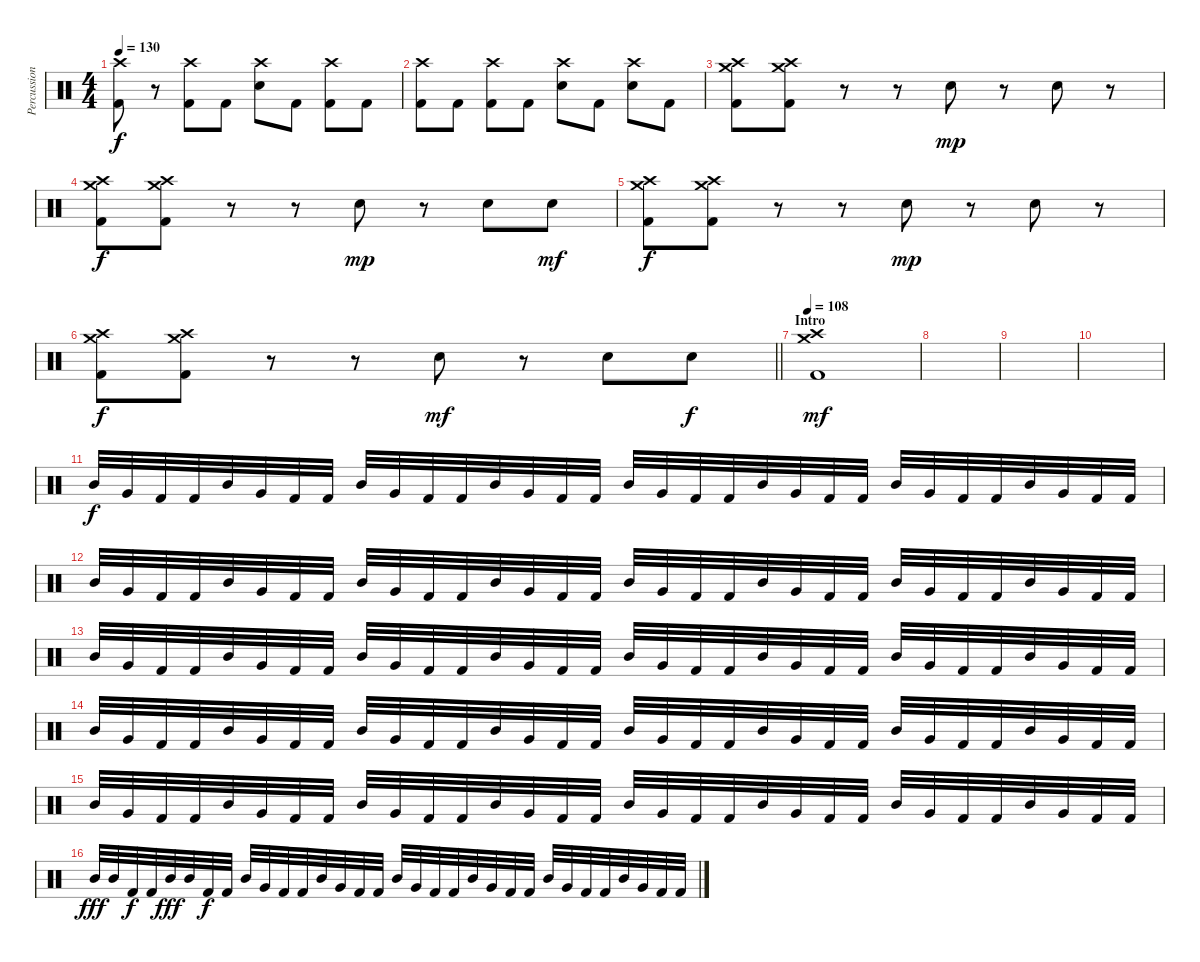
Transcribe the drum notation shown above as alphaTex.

\track ("Percussions" "Percussion") {instrument percussion}
\staff {score}
\articulation defaults
\ts (4 4)
\tempo 130
\clef neutral
\ks c
("Kick (hit) 2" "Crash high (hit)").8{dy f} r.8 ("Kick (hit) 2" "Crash high (hit)").8 "Kick (hit) 2".8 ("Electric Snare (hit)" "Crash high (hit)").8 "Kick (hit) 2".8 ("Kick (hit) 2" "Crash high (hit)").8 "Kick (hit) 2".8 |
("Kick (hit) 2" "Crash high (hit)").8 "Kick (hit) 2".8 ("Kick (hit) 2" "Crash high (hit)").8 "Kick (hit) 2".8 ("Electric Snare (hit)" "Crash high (hit)").8 "Kick (hit) 2".8 ("Electric Snare (hit)" "Crash high (hit)").8 "Kick (hit) 2".8 |
("Kick (hit) 2" "Crash medium (hit)" "Crash high (hit)").8 ("Kick (hit) 2" "Crash medium (hit)" "Crash high (hit)").8 r.8 r.8 "Snare (hit) 2".8{dy mp} r.8 "Snare (hit) 2".8 r.8 |
("Kick (hit) 2" "Crash medium (hit)" "Crash high (hit)").8{dy f} ("Kick (hit) 2" "Crash medium (hit)" "Crash high (hit)").8 r.8 r.8 "Snare (hit) 2".8{dy mp} r.8 "Snare (hit) 2".8 "Snare (hit) 2".8{dy mf} |
("Kick (hit) 2" "Crash medium (hit)" "Crash high (hit)").8{dy f} ("Kick (hit) 2" "Crash medium (hit)" "Crash high (hit)").8 r.8 r.8 "Snare (hit) 2".8{dy mp} r.8 "Snare (hit) 2".8 r.8 |
\barLineRight lightlight
("Kick (hit) 2" "Crash medium (hit)" "Crash high (hit)").8{dy f} ("Kick (hit) 2" "Crash medium (hit)" "Crash high (hit)").8 r.8 r.8 "Snare (hit) 2".8{dy mf} r.8 "Snare (hit) 2".8 "Snare (hit) 2".8{dy f} |
\section ("" "Intro")
\tempo 108
("Kick (hit) 2" "Crash medium (hit)" "Crash high (hit)").1{dy mf} |
|
|
|
"Mid Tom (hit)".32{dy f} "Very Low Tom (hit)".32 "Kick (hit) 2".32 "Kick (hit) 2".32 "Mid Tom (hit)".32 "Very Low Tom (hit)".32 "Kick (hit) 2".32 "Kick (hit) 2".32 "Mid Tom (hit)".32 "Very Low Tom (hit)".32 "Kick (hit) 2".32 "Kick (hit) 2".32 "Mid Tom (hit)".32 "Very Low Tom (hit)".32 "Kick (hit) 2".32 "Kick (hit) 2".32 "Mid Tom (hit)".32 "Very Low Tom (hit)".32 "Kick (hit) 2".32 "Kick (hit) 2".32 "Mid Tom (hit)".32 "Very Low Tom (hit)".32 "Kick (hit) 2".32 "Kick (hit) 2".32 "Mid Tom (hit)".32 "Very Low Tom (hit)".32 "Kick (hit) 2".32 "Kick (hit) 2".32 "Mid Tom (hit)".32 "Very Low Tom (hit)".32 "Kick (hit) 2".32 "Kick (hit) 2".32 |
"Mid Tom (hit)".32 "Very Low Tom (hit)".32 "Kick (hit) 2".32 "Kick (hit) 2".32 "Mid Tom (hit)".32 "Very Low Tom (hit)".32 "Kick (hit) 2".32 "Kick (hit) 2".32 "Mid Tom (hit)".32 "Very Low Tom (hit)".32 "Kick (hit) 2".32 "Kick (hit) 2".32 "Mid Tom (hit)".32 "Very Low Tom (hit)".32 "Kick (hit) 2".32 "Kick (hit) 2".32 "Mid Tom (hit)".32 "Very Low Tom (hit)".32 "Kick (hit) 2".32 "Kick (hit) 2".32 "Mid Tom (hit)".32 "Very Low Tom (hit)".32 "Kick (hit) 2".32 "Kick (hit) 2".32 "Mid Tom (hit)".32 "Very Low Tom (hit)".32 "Kick (hit) 2".32 "Kick (hit) 2".32 "Mid Tom (hit)".32 "Very Low Tom (hit)".32 "Kick (hit) 2".32 "Kick (hit) 2".32 |
"Mid Tom (hit)".32 "Very Low Tom (hit)".32 "Kick (hit) 2".32 "Kick (hit) 2".32 "Mid Tom (hit)".32 "Very Low Tom (hit)".32 "Kick (hit) 2".32 "Kick (hit) 2".32 "Mid Tom (hit)".32 "Very Low Tom (hit)".32 "Kick (hit) 2".32 "Kick (hit) 2".32 "Mid Tom (hit)".32 "Very Low Tom (hit)".32 "Kick (hit) 2".32 "Kick (hit) 2".32 "Mid Tom (hit)".32 "Very Low Tom (hit)".32 "Kick (hit) 2".32 "Kick (hit) 2".32 "Mid Tom (hit)".32 "Very Low Tom (hit)".32 "Kick (hit) 2".32 "Kick (hit) 2".32 "Mid Tom (hit)".32 "Very Low Tom (hit)".32 "Kick (hit) 2".32 "Kick (hit) 2".32 "Mid Tom (hit)".32 "Very Low Tom (hit)".32 "Kick (hit) 2".32 "Kick (hit) 2".32 |
"Mid Tom (hit)".32 "Very Low Tom (hit)".32 "Kick (hit) 2".32 "Kick (hit) 2".32 "Mid Tom (hit)".32 "Very Low Tom (hit)".32 "Kick (hit) 2".32 "Kick (hit) 2".32 "Mid Tom (hit)".32 "Very Low Tom (hit)".32 "Kick (hit) 2".32 "Kick (hit) 2".32 "Mid Tom (hit)".32 "Very Low Tom (hit)".32 "Kick (hit) 2".32 "Kick (hit) 2".32 "Mid Tom (hit)".32 "Very Low Tom (hit)".32 "Kick (hit) 2".32 "Kick (hit) 2".32 "Mid Tom (hit)".32 "Very Low Tom (hit)".32 "Kick (hit) 2".32 "Kick (hit) 2".32 "Mid Tom (hit)".32 "Very Low Tom (hit)".32 "Kick (hit) 2".32 "Kick (hit) 2".32 "Mid Tom (hit)".32 "Very Low Tom (hit)".32 "Kick (hit) 2".32 "Kick (hit) 2".32 |
"Mid Tom (hit)".32 "Very Low Tom (hit)".32 "Kick (hit) 2".32 "Kick (hit) 2".32 "Mid Tom (hit)".32 "Very Low Tom (hit)".32 "Kick (hit) 2".32 "Kick (hit) 2".32 "Mid Tom (hit)".32 "Very Low Tom (hit)".32 "Kick (hit) 2".32 "Kick (hit) 2".32 "Mid Tom (hit)".32 "Very Low Tom (hit)".32 "Kick (hit) 2".32 "Kick (hit) 2".32 "Mid Tom (hit)".32 "Very Low Tom (hit)".32 "Kick (hit) 2".32 "Kick (hit) 2".32 "Mid Tom (hit)".32 "Very Low Tom (hit)".32 "Kick (hit) 2".32 "Kick (hit) 2".32 "Mid Tom (hit)".32 "Very Low Tom (hit)".32 "Kick (hit) 2".32 "Kick (hit) 2".32 "Mid Tom (hit)".32 "Very Low Tom (hit)".32 "Kick (hit) 2".32 "Kick (hit) 2".32 |
"Mid Tom (hit)".32{dy fff} "Mid Tom (hit)".32 "Kick (hit) 2".32{dy f} "Kick (hit) 2".32 "Mid Tom (hit)".32{dy fff} "Mid Tom (hit)".32 "Kick (hit) 2".32{dy f} "Kick (hit) 2".32 "Mid Tom (hit)".32 "Very Low Tom (hit)".32 "Kick (hit) 2".32 "Kick (hit) 2".32 "Mid Tom (hit)".32 "Very Low Tom (hit)".32 "Kick (hit) 2".32 "Kick (hit) 2".32 "Mid Tom (hit)".32 "Very Low Tom (hit)".32 "Kick (hit) 2".32 "Kick (hit) 2".32 "Mid Tom (hit)".32 "Very Low Tom (hit)".32 "Kick (hit) 2".32 "Kick (hit) 2".32 "Mid Tom (hit)".32 "Very Low Tom (hit)".32 "Kick (hit) 2".32 "Kick (hit) 2".32 "Mid Tom (hit)".32 "Very Low Tom (hit)".32 "Kick (hit) 2".32 "Kick (hit) 2".32
